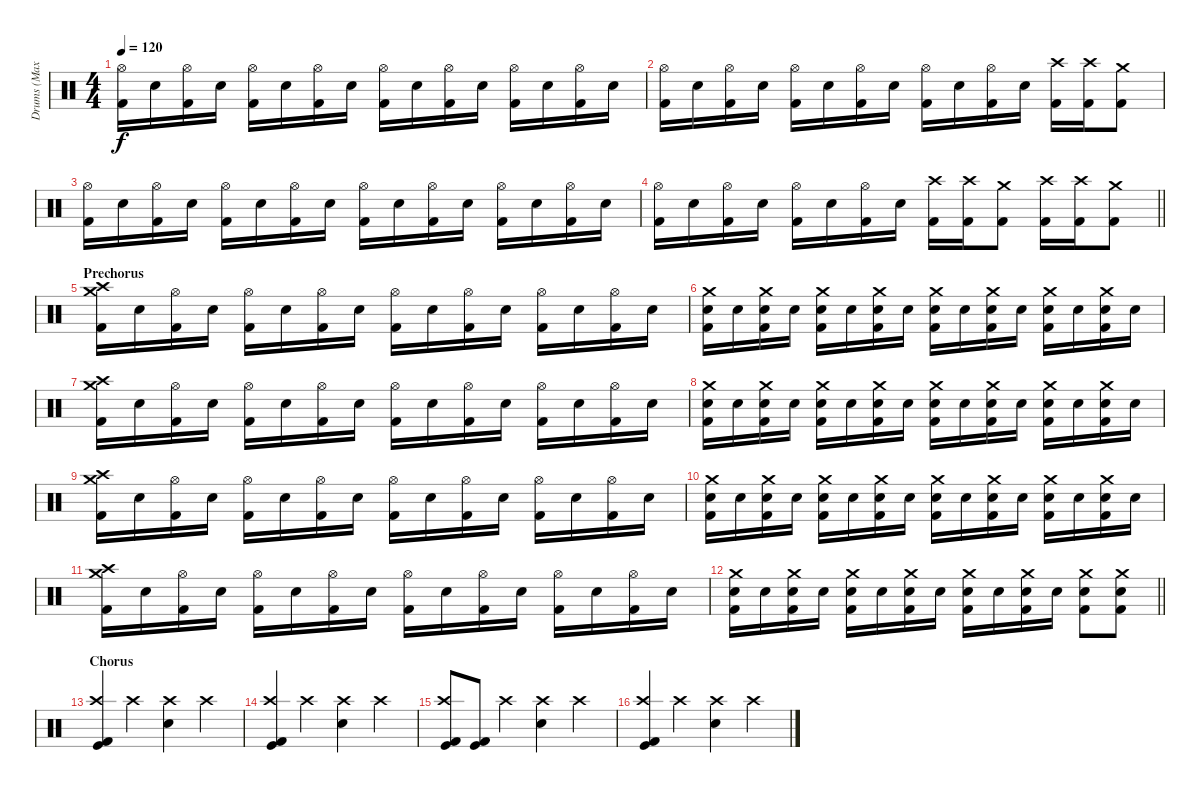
\track ("Drums (Max Duhamel)" "Drums (Max") {instrument percussion}
\staff {score}
\articulation defaults
\ts (4 4)
\tempo 120
\clef neutral
\ks c
("Hi-Hat (open)" "Kick (hit) 2").16{dy f} "Electric Snare (hit)".16 ("Hi-Hat (open)" "Kick (hit) 2").16 "Electric Snare (hit)".16 ("Hi-Hat (open)" "Kick (hit) 2").16 "Electric Snare (hit)".16 ("Hi-Hat (open)" "Kick (hit) 2").16 "Electric Snare (hit)".16 ("Hi-Hat (open)" "Kick (hit) 2").16 "Electric Snare (hit)".16 ("Hi-Hat (open)" "Kick (hit) 2").16 "Electric Snare (hit)".16 ("Hi-Hat (open)" "Kick (hit) 2").16 "Electric Snare (hit)".16 ("Hi-Hat (open)" "Kick (hit) 2").16 "Electric Snare (hit)".16 |
("Hi-Hat (open)" "Kick (hit) 2").16 "Electric Snare (hit)".16 ("Hi-Hat (open)" "Kick (hit) 2").16 "Electric Snare (hit)".16 ("Hi-Hat (open)" "Kick (hit) 2").16 "Electric Snare (hit)".16 ("Hi-Hat (open)" "Kick (hit) 2").16 "Electric Snare (hit)".16 ("Hi-Hat (open)" "Kick (hit) 2").16 "Electric Snare (hit)".16 ("Hi-Hat (open)" "Kick (hit) 2").16 "Electric Snare (hit)".16 ("Crash high (hit)" "Kick (hit) 2").16 ("Crash high (hit)" "Kick (hit) 2").16 ("Crash medium (hit)" "Kick (hit) 2").8 |
("Hi-Hat (open)" "Kick (hit) 2").16 "Electric Snare (hit)".16 ("Hi-Hat (open)" "Kick (hit) 2").16 "Electric Snare (hit)".16 ("Hi-Hat (open)" "Kick (hit) 2").16 "Electric Snare (hit)".16 ("Hi-Hat (open)" "Kick (hit) 2").16 "Electric Snare (hit)".16 ("Hi-Hat (open)" "Kick (hit) 2").16 "Electric Snare (hit)".16 ("Hi-Hat (open)" "Kick (hit) 2").16 "Electric Snare (hit)".16 ("Hi-Hat (open)" "Kick (hit) 2").16 "Electric Snare (hit)".16 ("Hi-Hat (open)" "Kick (hit) 2").16 "Electric Snare (hit)".16 |
\barLineRight lightlight
("Hi-Hat (open)" "Kick (hit) 2").16 "Electric Snare (hit)".16 ("Hi-Hat (open)" "Kick (hit) 2").16 "Electric Snare (hit)".16 ("Hi-Hat (open)" "Kick (hit) 2").16 "Electric Snare (hit)".16 ("Hi-Hat (open)" "Kick (hit) 2").16 "Electric Snare (hit)".16 ("Crash high (hit)" "Kick (hit) 2").16 ("Crash high (hit)" "Kick (hit) 2").16 ("Crash medium (hit)" "Kick (hit) 2").8 ("Crash high (hit)" "Kick (hit) 2").16 ("Crash high (hit)" "Kick (hit) 2").16 ("Crash medium (hit)" "Kick (hit) 2").8 |
\section ("" "Prechorus")
("Crash medium (hit)" "Crash high (hit)" "Kick (hit) 2").16 "Electric Snare (hit)".16 ("Hi-Hat (open)" "Kick (hit) 2").16 "Electric Snare (hit)".16 ("Hi-Hat (open)" "Kick (hit) 2").16 "Electric Snare (hit)".16 ("Hi-Hat (open)" "Kick (hit) 2").16 "Electric Snare (hit)".16 ("Hi-Hat (open)" "Kick (hit) 2").16 "Electric Snare (hit)".16 ("Hi-Hat (open)" "Kick (hit) 2").16 "Electric Snare (hit)".16 ("Hi-Hat (open)" "Kick (hit) 2").16 "Electric Snare (hit)".16 ("Hi-Hat (open)" "Kick (hit) 2").16 "Electric Snare (hit)".16 |
("Crash medium (hit)" "Electric Snare (hit)" "Kick (hit) 2").16 "Electric Snare (hit)".16 ("Crash medium (hit)" "Electric Snare (hit)" "Kick (hit) 2").16 "Electric Snare (hit)".16 ("Crash medium (hit)" "Electric Snare (hit)" "Kick (hit) 2").16 "Electric Snare (hit)".16 ("Crash medium (hit)" "Electric Snare (hit)" "Kick (hit) 2").16 "Electric Snare (hit)".16 ("Crash medium (hit)" "Electric Snare (hit)" "Kick (hit) 2").16 "Electric Snare (hit)".16 ("Crash medium (hit)" "Electric Snare (hit)" "Kick (hit) 2").16 "Electric Snare (hit)".16 ("Crash medium (hit)" "Electric Snare (hit)" "Kick (hit) 2").16 "Electric Snare (hit)".16 ("Crash medium (hit)" "Electric Snare (hit)" "Kick (hit) 2").16 "Electric Snare (hit)".16 |
("Crash medium (hit)" "Crash high (hit)" "Kick (hit) 2").16 "Electric Snare (hit)".16 ("Hi-Hat (open)" "Kick (hit) 2").16 "Electric Snare (hit)".16 ("Hi-Hat (open)" "Kick (hit) 2").16 "Electric Snare (hit)".16 ("Hi-Hat (open)" "Kick (hit) 2").16 "Electric Snare (hit)".16 ("Hi-Hat (open)" "Kick (hit) 2").16 "Electric Snare (hit)".16 ("Hi-Hat (open)" "Kick (hit) 2").16 "Electric Snare (hit)".16 ("Hi-Hat (open)" "Kick (hit) 2").16 "Electric Snare (hit)".16 ("Hi-Hat (open)" "Kick (hit) 2").16 "Electric Snare (hit)".16 |
("Crash medium (hit)" "Electric Snare (hit)" "Kick (hit) 2").16 "Electric Snare (hit)".16 ("Crash medium (hit)" "Electric Snare (hit)" "Kick (hit) 2").16 "Electric Snare (hit)".16 ("Crash medium (hit)" "Electric Snare (hit)" "Kick (hit) 2").16 "Electric Snare (hit)".16 ("Crash medium (hit)" "Electric Snare (hit)" "Kick (hit) 2").16 "Electric Snare (hit)".16 ("Crash medium (hit)" "Electric Snare (hit)" "Kick (hit) 2").16 "Electric Snare (hit)".16 ("Crash medium (hit)" "Electric Snare (hit)" "Kick (hit) 2").16 "Electric Snare (hit)".16 ("Crash medium (hit)" "Electric Snare (hit)" "Kick (hit) 2").16 "Electric Snare (hit)".16 ("Crash medium (hit)" "Electric Snare (hit)" "Kick (hit) 2").16 "Electric Snare (hit)".16 |
("Crash medium (hit)" "Crash high (hit)" "Kick (hit) 2").16 "Electric Snare (hit)".16 ("Hi-Hat (open)" "Kick (hit) 2").16 "Electric Snare (hit)".16 ("Hi-Hat (open)" "Kick (hit) 2").16 "Electric Snare (hit)".16 ("Hi-Hat (open)" "Kick (hit) 2").16 "Electric Snare (hit)".16 ("Hi-Hat (open)" "Kick (hit) 2").16 "Electric Snare (hit)".16 ("Hi-Hat (open)" "Kick (hit) 2").16 "Electric Snare (hit)".16 ("Hi-Hat (open)" "Kick (hit) 2").16 "Electric Snare (hit)".16 ("Hi-Hat (open)" "Kick (hit) 2").16 "Electric Snare (hit)".16 |
("Crash medium (hit)" "Electric Snare (hit)" "Kick (hit) 2").16 "Electric Snare (hit)".16 ("Crash medium (hit)" "Electric Snare (hit)" "Kick (hit) 2").16 "Electric Snare (hit)".16 ("Crash medium (hit)" "Electric Snare (hit)" "Kick (hit) 2").16 "Electric Snare (hit)".16 ("Crash medium (hit)" "Electric Snare (hit)" "Kick (hit) 2").16 "Electric Snare (hit)".16 ("Crash medium (hit)" "Electric Snare (hit)" "Kick (hit) 2").16 "Electric Snare (hit)".16 ("Crash medium (hit)" "Electric Snare (hit)" "Kick (hit) 2").16 "Electric Snare (hit)".16 ("Crash medium (hit)" "Electric Snare (hit)" "Kick (hit) 2").16 "Electric Snare (hit)".16 ("Crash medium (hit)" "Electric Snare (hit)" "Kick (hit) 2").16 "Electric Snare (hit)".16 |
("Crash medium (hit)" "Crash high (hit)" "Kick (hit) 2").16 "Electric Snare (hit)".16 ("Hi-Hat (open)" "Kick (hit) 2").16 "Electric Snare (hit)".16 ("Hi-Hat (open)" "Kick (hit) 2").16 "Electric Snare (hit)".16 ("Hi-Hat (open)" "Kick (hit) 2").16 "Electric Snare (hit)".16 ("Hi-Hat (open)" "Kick (hit) 2").16 "Electric Snare (hit)".16 ("Hi-Hat (open)" "Kick (hit) 2").16 "Electric Snare (hit)".16 ("Hi-Hat (open)" "Kick (hit) 2").16 "Electric Snare (hit)".16 ("Hi-Hat (open)" "Kick (hit) 2").16 "Electric Snare (hit)".16 |
\barLineRight lightlight
("Crash medium (hit)" "Electric Snare (hit)" "Kick (hit) 2").16 "Electric Snare (hit)".16 ("Crash medium (hit)" "Electric Snare (hit)" "Kick (hit) 2").16 "Electric Snare (hit)".16 ("Crash medium (hit)" "Electric Snare (hit)" "Kick (hit) 2").16 "Electric Snare (hit)".16 ("Crash medium (hit)" "Electric Snare (hit)" "Kick (hit) 2").16 "Electric Snare (hit)".16 ("Crash medium (hit)" "Electric Snare (hit)" "Kick (hit) 2").16 "Electric Snare (hit)".16 ("Crash medium (hit)" "Electric Snare (hit)" "Kick (hit) 2").16 "Electric Snare (hit)".16 ("Crash medium (hit)" "Electric Snare (hit)" "Kick (hit) 2").8 ("Crash medium (hit)" "Electric Snare (hit)" "Kick (hit) 2").8 |
\section ("" "Chorus")
("Crash high (hit)" "Kick (hit)" "Kick (hit) 2").4 "Crash high (hit)".4 ("Crash high (hit)" "Electric Snare (hit)").4 "Crash high (hit)".4 |
("Crash high (hit)" "Kick (hit)" "Kick (hit) 2").4 "Crash high (hit)".4 ("Crash high (hit)" "Electric Snare (hit)").4 "Crash high (hit)".4 |
("Crash high (hit)" "Kick (hit)" "Kick (hit) 2").8 ("Kick (hit)" "Kick (hit) 2").8 "Crash high (hit)".4 ("Crash high (hit)" "Electric Snare (hit)").4 "Crash high (hit)".4 |
("Crash high (hit)" "Kick (hit)" "Kick (hit) 2").4 "Crash high (hit)".4 ("Crash high (hit)" "Electric Snare (hit)").4 "Crash high (hit)".4
